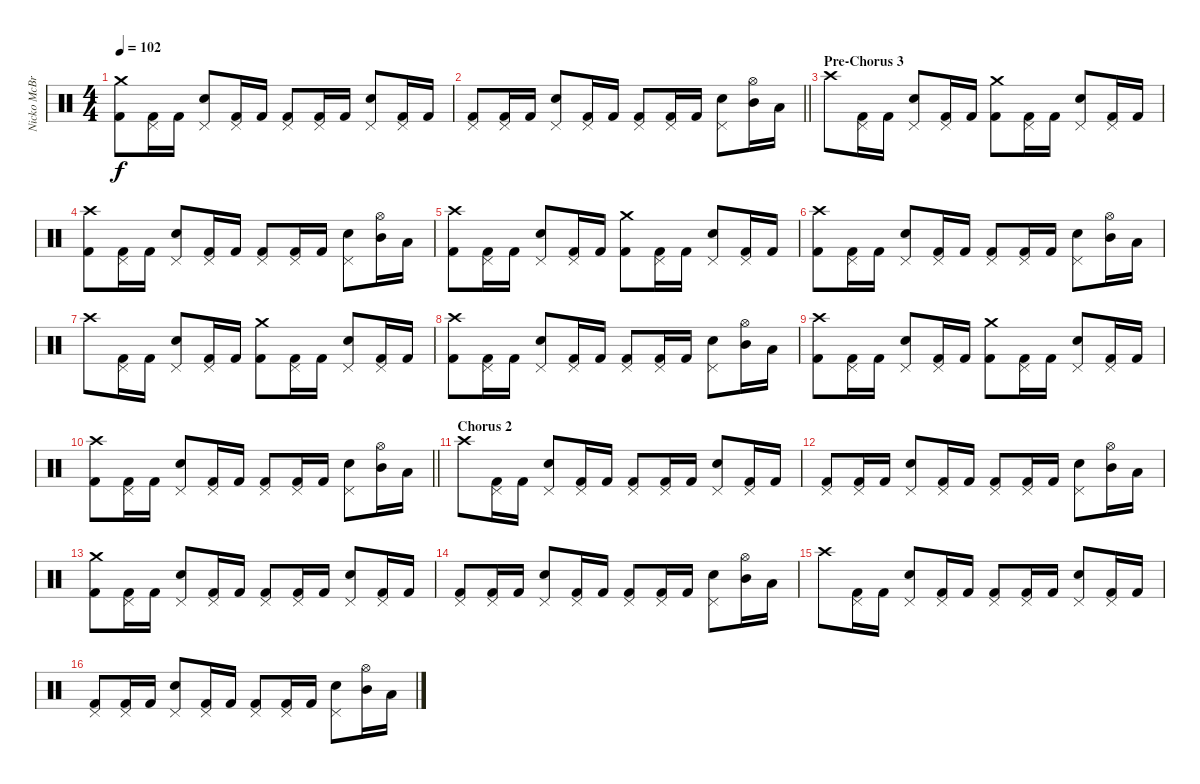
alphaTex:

\track ("Nicko McBrain" "Nicko McBr") {instrument percussion}
\staff {score}
\articulation defaults
\ts (4 4)
\tempo 102
\clef neutral
\ks c
("Crash medium (hit)" "Kick (hit) 2").8{dy f} ("Pedal Hi-Hat (hit)" "Kick (hit) 2").16 "Kick (hit) 2".16 ("Pedal Hi-Hat (hit)" "Electric Snare (hit)").8 ("Pedal Hi-Hat (hit)" "Kick (hit) 2").16 "Kick (hit) 2".16 ("Pedal Hi-Hat (hit)" "Kick (hit) 2").8 ("Pedal Hi-Hat (hit)" "Kick (hit) 2").16 "Kick (hit) 2".16 ("Pedal Hi-Hat (hit)" "Electric Snare (hit)").8 ("Pedal Hi-Hat (hit)" "Kick (hit) 2").16 "Kick (hit) 2".16 |
\barLineRight lightlight
("Pedal Hi-Hat (hit)" "Kick (hit) 2").8 ("Pedal Hi-Hat (hit)" "Kick (hit) 2").16 "Kick (hit) 2".16 ("Pedal Hi-Hat (hit)" "Electric Snare (hit)").8 ("Pedal Hi-Hat (hit)" "Kick (hit) 2").16 "Kick (hit) 2".16 ("Pedal Hi-Hat (hit)" "Kick (hit) 2").8 ("Pedal Hi-Hat (hit)" "Kick (hit) 2").16 "Kick (hit) 2".16 ("Pedal Hi-Hat (hit)" "Electric Snare (hit)").8 ("Hi-Hat (open)" "Mid Tom (hit)").16 "Low Tom (hit)".16 |
\section ("" "Pre-Chorus 3")
"Crash high (hit)".8 ("Pedal Hi-Hat (hit)" "Kick (hit) 2").16 "Kick (hit) 2".16 ("Pedal Hi-Hat (hit)" "Electric Snare (hit)").8 ("Pedal Hi-Hat (hit)" "Kick (hit) 2").16 "Kick (hit) 2".16 ("Crash medium (hit)" "Kick (hit) 2").8 ("Pedal Hi-Hat (hit)" "Kick (hit) 2").16 "Kick (hit) 2".16 ("Pedal Hi-Hat (hit)" "Electric Snare (hit)").8 ("Pedal Hi-Hat (hit)" "Kick (hit) 2").16 "Kick (hit) 2".16 |
("Crash high (hit)" "Kick (hit) 2").8 ("Pedal Hi-Hat (hit)" "Kick (hit) 2").16 "Kick (hit) 2".16 ("Pedal Hi-Hat (hit)" "Electric Snare (hit)").8 ("Pedal Hi-Hat (hit)" "Kick (hit) 2").16 "Kick (hit) 2".16 ("Pedal Hi-Hat (hit)" "Kick (hit) 2").8 ("Pedal Hi-Hat (hit)" "Kick (hit) 2").16 "Kick (hit) 2".16 ("Pedal Hi-Hat (hit)" "Electric Snare (hit)").8 ("Hi-Hat (open)" "Mid Tom (hit)").16 "Low Tom (hit)".16 |
("Crash high (hit)" "Kick (hit) 2").8 ("Pedal Hi-Hat (hit)" "Kick (hit) 2").16 "Kick (hit) 2".16 ("Pedal Hi-Hat (hit)" "Electric Snare (hit)").8 ("Pedal Hi-Hat (hit)" "Kick (hit) 2").16 "Kick (hit) 2".16 ("Crash medium (hit)" "Kick (hit) 2").8 ("Pedal Hi-Hat (hit)" "Kick (hit) 2").16 "Kick (hit) 2".16 ("Pedal Hi-Hat (hit)" "Electric Snare (hit)").8 ("Pedal Hi-Hat (hit)" "Kick (hit) 2").16 "Kick (hit) 2".16 |
("Crash high (hit)" "Kick (hit) 2").8 ("Pedal Hi-Hat (hit)" "Kick (hit) 2").16 "Kick (hit) 2".16 ("Pedal Hi-Hat (hit)" "Electric Snare (hit)").8 ("Pedal Hi-Hat (hit)" "Kick (hit) 2").16 "Kick (hit) 2".16 ("Pedal Hi-Hat (hit)" "Kick (hit) 2").8 ("Pedal Hi-Hat (hit)" "Kick (hit) 2").16 "Kick (hit) 2".16 ("Pedal Hi-Hat (hit)" "Electric Snare (hit)").8 ("Hi-Hat (open)" "Mid Tom (hit)").16 "Low Tom (hit)".16 |
"Crash high (hit)".8 ("Pedal Hi-Hat (hit)" "Kick (hit) 2").16 "Kick (hit) 2".16 ("Pedal Hi-Hat (hit)" "Electric Snare (hit)").8 ("Pedal Hi-Hat (hit)" "Kick (hit) 2").16 "Kick (hit) 2".16 ("Crash medium (hit)" "Kick (hit) 2").8 ("Pedal Hi-Hat (hit)" "Kick (hit) 2").16 "Kick (hit) 2".16 ("Pedal Hi-Hat (hit)" "Electric Snare (hit)").8 ("Pedal Hi-Hat (hit)" "Kick (hit) 2").16 "Kick (hit) 2".16 |
("Crash high (hit)" "Kick (hit) 2").8 ("Pedal Hi-Hat (hit)" "Kick (hit) 2").16 "Kick (hit) 2".16 ("Pedal Hi-Hat (hit)" "Electric Snare (hit)").8 ("Pedal Hi-Hat (hit)" "Kick (hit) 2").16 "Kick (hit) 2".16 ("Pedal Hi-Hat (hit)" "Kick (hit) 2").8 ("Pedal Hi-Hat (hit)" "Kick (hit) 2").16 "Kick (hit) 2".16 ("Pedal Hi-Hat (hit)" "Electric Snare (hit)").8 ("Hi-Hat (open)" "Mid Tom (hit)").16 "Low Tom (hit)".16 |
("Crash high (hit)" "Kick (hit) 2").8 ("Pedal Hi-Hat (hit)" "Kick (hit) 2").16 "Kick (hit) 2".16 ("Pedal Hi-Hat (hit)" "Electric Snare (hit)").8 ("Pedal Hi-Hat (hit)" "Kick (hit) 2").16 "Kick (hit) 2".16 ("Crash medium (hit)" "Kick (hit) 2").8 ("Pedal Hi-Hat (hit)" "Kick (hit) 2").16 "Kick (hit) 2".16 ("Pedal Hi-Hat (hit)" "Electric Snare (hit)").8 ("Pedal Hi-Hat (hit)" "Kick (hit) 2").16 "Kick (hit) 2".16 |
\barLineRight lightlight
("Crash high (hit)" "Kick (hit) 2").8 ("Pedal Hi-Hat (hit)" "Kick (hit) 2").16 "Kick (hit) 2".16 ("Pedal Hi-Hat (hit)" "Electric Snare (hit)").8 ("Pedal Hi-Hat (hit)" "Kick (hit) 2").16 "Kick (hit) 2".16 ("Pedal Hi-Hat (hit)" "Kick (hit) 2").8 ("Pedal Hi-Hat (hit)" "Kick (hit) 2").16 "Kick (hit) 2".16 ("Pedal Hi-Hat (hit)" "Electric Snare (hit)").8 ("Hi-Hat (open)" "Mid Tom (hit)").16 "Low Tom (hit)".16 |
\section ("" "Chorus 2")
"Crash high (hit)".8 ("Pedal Hi-Hat (hit)" "Kick (hit) 2").16 "Kick (hit) 2".16 ("Pedal Hi-Hat (hit)" "Electric Snare (hit)").8 ("Pedal Hi-Hat (hit)" "Kick (hit) 2").16 "Kick (hit) 2".16 ("Pedal Hi-Hat (hit)" "Kick (hit) 2").8 ("Pedal Hi-Hat (hit)" "Kick (hit) 2").16 "Kick (hit) 2".16 ("Pedal Hi-Hat (hit)" "Electric Snare (hit)").8 ("Pedal Hi-Hat (hit)" "Kick (hit) 2").16 "Kick (hit) 2".16 |
("Pedal Hi-Hat (hit)" "Kick (hit) 2").8 ("Pedal Hi-Hat (hit)" "Kick (hit) 2").16 "Kick (hit) 2".16 ("Pedal Hi-Hat (hit)" "Electric Snare (hit)").8 ("Pedal Hi-Hat (hit)" "Kick (hit) 2").16 "Kick (hit) 2".16 ("Pedal Hi-Hat (hit)" "Kick (hit) 2").8 ("Pedal Hi-Hat (hit)" "Kick (hit) 2").16 "Kick (hit) 2".16 ("Pedal Hi-Hat (hit)" "Electric Snare (hit)").8 ("Hi-Hat (open)" "Mid Tom (hit)").16 "Low Tom (hit)".16 |
("Crash medium (hit)" "Kick (hit) 2").8 ("Pedal Hi-Hat (hit)" "Kick (hit) 2").16 "Kick (hit) 2".16 ("Pedal Hi-Hat (hit)" "Electric Snare (hit)").8 ("Pedal Hi-Hat (hit)" "Kick (hit) 2").16 "Kick (hit) 2".16 ("Pedal Hi-Hat (hit)" "Kick (hit) 2").8 ("Pedal Hi-Hat (hit)" "Kick (hit) 2").16 "Kick (hit) 2".16 ("Pedal Hi-Hat (hit)" "Electric Snare (hit)").8 ("Pedal Hi-Hat (hit)" "Kick (hit) 2").16 "Kick (hit) 2".16 |
("Pedal Hi-Hat (hit)" "Kick (hit) 2").8 ("Pedal Hi-Hat (hit)" "Kick (hit) 2").16 "Kick (hit) 2".16 ("Pedal Hi-Hat (hit)" "Electric Snare (hit)").8 ("Pedal Hi-Hat (hit)" "Kick (hit) 2").16 "Kick (hit) 2".16 ("Pedal Hi-Hat (hit)" "Kick (hit) 2").8 ("Pedal Hi-Hat (hit)" "Kick (hit) 2").16 "Kick (hit) 2".16 ("Pedal Hi-Hat (hit)" "Electric Snare (hit)").8 ("Hi-Hat (open)" "Mid Tom (hit)").16 "Low Tom (hit)".16 |
"Crash high (hit)".8 ("Pedal Hi-Hat (hit)" "Kick (hit) 2").16 "Kick (hit) 2".16 ("Pedal Hi-Hat (hit)" "Electric Snare (hit)").8 ("Pedal Hi-Hat (hit)" "Kick (hit) 2").16 "Kick (hit) 2".16 ("Pedal Hi-Hat (hit)" "Kick (hit) 2").8 ("Pedal Hi-Hat (hit)" "Kick (hit) 2").16 "Kick (hit) 2".16 ("Pedal Hi-Hat (hit)" "Electric Snare (hit)").8 ("Pedal Hi-Hat (hit)" "Kick (hit) 2").16 "Kick (hit) 2".16 |
("Pedal Hi-Hat (hit)" "Kick (hit) 2").8 ("Pedal Hi-Hat (hit)" "Kick (hit) 2").16 "Kick (hit) 2".16 ("Pedal Hi-Hat (hit)" "Electric Snare (hit)").8 ("Pedal Hi-Hat (hit)" "Kick (hit) 2").16 "Kick (hit) 2".16 ("Pedal Hi-Hat (hit)" "Kick (hit) 2").8 ("Pedal Hi-Hat (hit)" "Kick (hit) 2").16 "Kick (hit) 2".16 ("Pedal Hi-Hat (hit)" "Electric Snare (hit)").8 ("Hi-Hat (open)" "Mid Tom (hit)").16 "Low Tom (hit)".16
